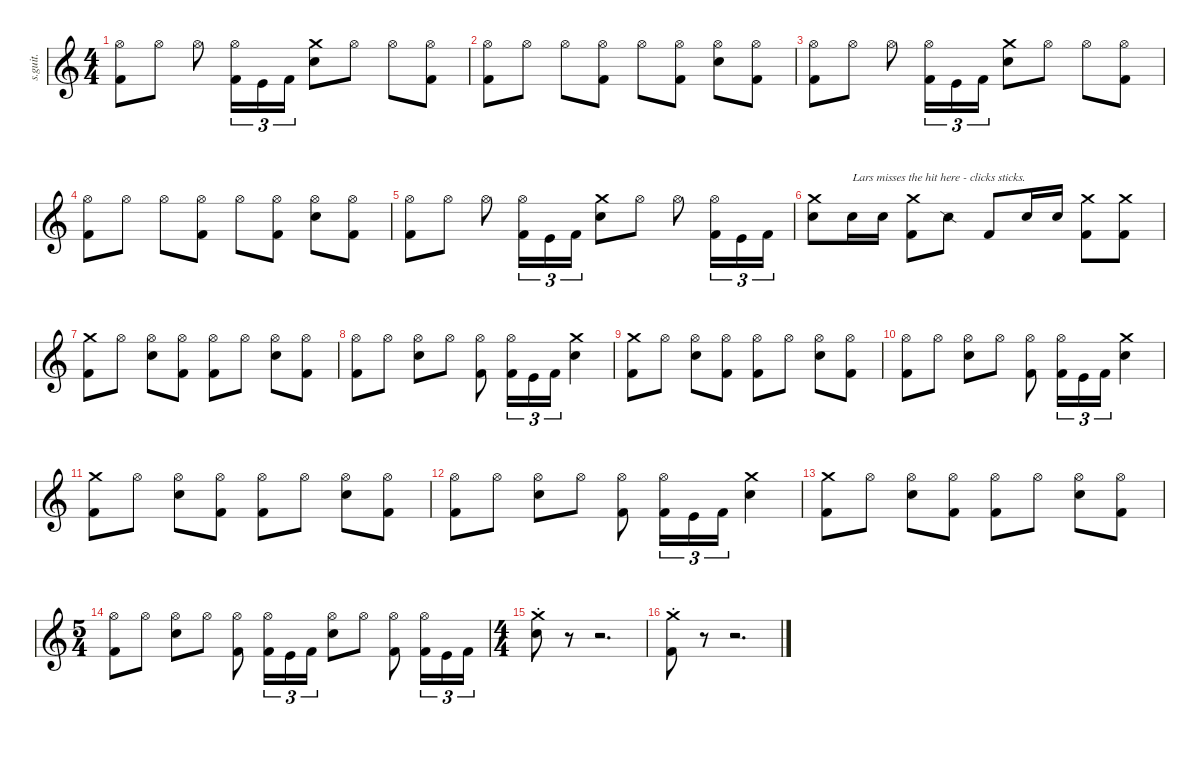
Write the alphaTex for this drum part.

\defaultSystemsLayout 4
\hideDynamics
\bracketExtendMode nobrackets
\track ("Lars Ulrich - Drums" "s.guit.") {instrument percussion}
\staff {score}
\articulation defaults
\ts (4 4)
\tempo (140 hide)
\clef g2
\ks c
("Hi-Hat (open)" "Kick (hit) 2").8{lyrics (0 "") lyrics (1 "") lyrics (2 "") lyrics (3 "") lyrics (4 "") dy f} "Hi-Hat (open)".8{lyrics (0 "") lyrics (1 "") lyrics (2 "") lyrics (3 "") lyrics (4 "")} "Hi-Hat (open)".8{lyrics (0 "") lyrics (1 "") lyrics (2 "") lyrics (3 "") lyrics (4 "")} ("Hi-Hat (open)" "Kick (hit) 2").16{tu (3 2) lyrics (0 "") lyrics (1 "") lyrics (2 "") lyrics (3 "") lyrics (4 "")} "Kick (hit)".16{tu (3 2) lyrics (0 "") lyrics (1 "") lyrics (2 "") lyrics (3 "") lyrics (4 "")} "Kick (hit) 2".16{tu (3 2) lyrics (0 "") lyrics (1 "") lyrics (2 "") lyrics (3 "") lyrics (4 "")} ("Crash medium (hit)" "Snare (hit) 2").8{lyrics (0 "") lyrics (1 "") lyrics (2 "") lyrics (3 "") lyrics (4 "")} "Hi-Hat (open)".8{lyrics (0 "") lyrics (1 "") lyrics (2 "") lyrics (3 "") lyrics (4 "")} "Hi-Hat (open)".8{lyrics (0 "") lyrics (1 "") lyrics (2 "") lyrics (3 "") lyrics (4 "")} ("Hi-Hat (open)" "Kick (hit) 2").8{lyrics (0 "") lyrics (1 "") lyrics (2 "") lyrics (3 "") lyrics (4 "")} |
("Hi-Hat (open)" "Kick (hit) 2").8{lyrics (0 "") lyrics (1 "") lyrics (2 "") lyrics (3 "") lyrics (4 "")} "Hi-Hat (open)".8{lyrics (0 "") lyrics (1 "") lyrics (2 "") lyrics (3 "") lyrics (4 "")} "Hi-Hat (open)".8{lyrics (0 "") lyrics (1 "") lyrics (2 "") lyrics (3 "") lyrics (4 "")} ("Hi-Hat (open)" "Kick (hit) 2").8{lyrics (0 "") lyrics (1 "") lyrics (2 "") lyrics (3 "") lyrics (4 "")} "Hi-Hat (open)".8{lyrics (0 "") lyrics (1 "") lyrics (2 "") lyrics (3 "") lyrics (4 "")} ("Hi-Hat (open)" "Kick (hit) 2").8{lyrics (0 "") lyrics (1 "") lyrics (2 "") lyrics (3 "") lyrics (4 "")} ("Hi-Hat (open)" "Snare (hit) 2").8{lyrics (0 "") lyrics (1 "") lyrics (2 "") lyrics (3 "") lyrics (4 "")} ("Hi-Hat (open)" "Kick (hit) 2").8{lyrics (0 "") lyrics (1 "") lyrics (2 "") lyrics (3 "") lyrics (4 "")} |
("Hi-Hat (open)" "Kick (hit) 2").8{lyrics (0 "") lyrics (1 "") lyrics (2 "") lyrics (3 "") lyrics (4 "")} "Hi-Hat (open)".8{lyrics (0 "") lyrics (1 "") lyrics (2 "") lyrics (3 "") lyrics (4 "")} "Hi-Hat (open)".8{lyrics (0 "") lyrics (1 "") lyrics (2 "") lyrics (3 "") lyrics (4 "")} ("Hi-Hat (open)" "Kick (hit) 2").16{tu (3 2) lyrics (0 "") lyrics (1 "") lyrics (2 "") lyrics (3 "") lyrics (4 "")} "Kick (hit)".16{tu (3 2) lyrics (0 "") lyrics (1 "") lyrics (2 "") lyrics (3 "") lyrics (4 "")} "Kick (hit) 2".16{tu (3 2) lyrics (0 "") lyrics (1 "") lyrics (2 "") lyrics (3 "") lyrics (4 "")} ("Crash medium (hit)" "Snare (hit) 2").8{lyrics (0 "") lyrics (1 "") lyrics (2 "") lyrics (3 "") lyrics (4 "")} "Hi-Hat (open)".8{lyrics (0 "") lyrics (1 "") lyrics (2 "") lyrics (3 "") lyrics (4 "")} "Hi-Hat (open)".8{lyrics (0 "") lyrics (1 "") lyrics (2 "") lyrics (3 "") lyrics (4 "")} ("Hi-Hat (open)" "Kick (hit) 2").8{lyrics (0 "") lyrics (1 "") lyrics (2 "") lyrics (3 "") lyrics (4 "")} |
("Hi-Hat (open)" "Kick (hit) 2").8{lyrics (0 "") lyrics (1 "") lyrics (2 "") lyrics (3 "") lyrics (4 "")} "Hi-Hat (open)".8{lyrics (0 "") lyrics (1 "") lyrics (2 "") lyrics (3 "") lyrics (4 "")} "Hi-Hat (open)".8{lyrics (0 "") lyrics (1 "") lyrics (2 "") lyrics (3 "") lyrics (4 "")} ("Hi-Hat (open)" "Kick (hit) 2").8{lyrics (0 "") lyrics (1 "") lyrics (2 "") lyrics (3 "") lyrics (4 "")} "Hi-Hat (open)".8{lyrics (0 "") lyrics (1 "") lyrics (2 "") lyrics (3 "") lyrics (4 "")} ("Hi-Hat (open)" "Kick (hit) 2").8{lyrics (0 "") lyrics (1 "") lyrics (2 "") lyrics (3 "") lyrics (4 "")} ("Hi-Hat (open)" "Snare (hit) 2").8{lyrics (0 "") lyrics (1 "") lyrics (2 "") lyrics (3 "") lyrics (4 "")} ("Hi-Hat (open)" "Kick (hit) 2").8{lyrics (0 "") lyrics (1 "") lyrics (2 "") lyrics (3 "") lyrics (4 "")} |
("Hi-Hat (open)" "Kick (hit) 2").8{lyrics (0 "") lyrics (1 "") lyrics (2 "") lyrics (3 "") lyrics (4 "")} "Hi-Hat (open)".8{lyrics (0 "") lyrics (1 "") lyrics (2 "") lyrics (3 "") lyrics (4 "")} "Hi-Hat (open)".8{lyrics (0 "") lyrics (1 "") lyrics (2 "") lyrics (3 "") lyrics (4 "")} ("Hi-Hat (open)" "Kick (hit) 2").16{tu (3 2) lyrics (0 "") lyrics (1 "") lyrics (2 "") lyrics (3 "") lyrics (4 "")} "Kick (hit)".16{tu (3 2) lyrics (0 "") lyrics (1 "") lyrics (2 "") lyrics (3 "") lyrics (4 "")} "Kick (hit) 2".16{tu (3 2) lyrics (0 "") lyrics (1 "") lyrics (2 "") lyrics (3 "") lyrics (4 "")} ("Crash medium (hit)" "Snare (hit) 2").8{lyrics (0 "") lyrics (1 "") lyrics (2 "") lyrics (3 "") lyrics (4 "")} "Hi-Hat (open)".8{lyrics (0 "") lyrics (1 "") lyrics (2 "") lyrics (3 "") lyrics (4 "")} "Hi-Hat (open)".8{lyrics (0 "") lyrics (1 "") lyrics (2 "") lyrics (3 "") lyrics (4 "")} ("Hi-Hat (open)" "Kick (hit) 2").16{tu (3 2) lyrics (0 "") lyrics (1 "") lyrics (2 "") lyrics (3 "") lyrics (4 "")} "Kick (hit)".16{tu (3 2) lyrics (0 "") lyrics (1 "") lyrics (2 "") lyrics (3 "") lyrics (4 "")} "Kick (hit) 2".16{tu (3 2) lyrics (0 "") lyrics (1 "") lyrics (2 "") lyrics (3 "") lyrics (4 "")} |
("Crash medium (hit)" "Snare (hit) 2").8{lyrics (0 "") lyrics (1 "") lyrics (2 "") lyrics (3 "") lyrics (4 "")} "Snare (hit) 2".16{txt "Lars misses the hit here - clicks sticks." lyrics (0 "") lyrics (1 "") lyrics (2 "") lyrics (3 "") lyrics (4 "") dy p} "Snare (hit) 2".16{lyrics (0 "") lyrics (1 "") lyrics (2 "") lyrics (3 "") lyrics (4 "")} ("Crash medium (hit)" "Kick (hit) 2").8{lyrics (0 "") lyrics (1 "") lyrics (2 "") lyrics (3 "") lyrics (4 "") dy f} "Snare (side stick) 2".8{lyrics (0 "") lyrics (1 "") lyrics (2 "") lyrics (3 "") lyrics (4 "") dy mf} "Kick (hit) 2".8{lyrics (0 "") lyrics (1 "") lyrics (2 "") lyrics (3 "") lyrics (4 "") dy fff} "Snare (hit) 2".16{lyrics (0 "") lyrics (1 "") lyrics (2 "") lyrics (3 "") lyrics (4 "") dy p} "Snare (hit) 2".16{lyrics (0 "") lyrics (1 "") lyrics (2 "") lyrics (3 "") lyrics (4 "")} ("Crash medium (hit)" "Kick (hit) 2").8{lyrics (0 "") lyrics (1 "") lyrics (2 "") lyrics (3 "") lyrics (4 "") dy f} ("Crash medium (hit)" "Kick (hit) 2").8{lyrics (0 "") lyrics (1 "") lyrics (2 "") lyrics (3 "") lyrics (4 "")} |
("Crash medium (hit)" "Kick (hit) 2").8{lyrics (0 "") lyrics (1 "") lyrics (2 "") lyrics (3 "") lyrics (4 "")} "Hi-Hat (open)".8{lyrics (0 "") lyrics (1 "") lyrics (2 "") lyrics (3 "") lyrics (4 "")} ("Hi-Hat (open)" "Snare (hit) 2").8{lyrics (0 "") lyrics (1 "") lyrics (2 "") lyrics (3 "") lyrics (4 "")} ("Hi-Hat (open)" "Kick (hit) 2").8{lyrics (0 "") lyrics (1 "") lyrics (2 "") lyrics (3 "") lyrics (4 "")} ("Hi-Hat (open)" "Kick (hit) 2").8{lyrics (0 "") lyrics (1 "") lyrics (2 "") lyrics (3 "") lyrics (4 "")} "Hi-Hat (open)".8{lyrics (0 "") lyrics (1 "") lyrics (2 "") lyrics (3 "") lyrics (4 "")} ("Hi-Hat (open)" "Snare (hit) 2").8{lyrics (0 "") lyrics (1 "") lyrics (2 "") lyrics (3 "") lyrics (4 "")} ("Hi-Hat (open)" "Kick (hit) 2").8{lyrics (0 "") lyrics (1 "") lyrics (2 "") lyrics (3 "") lyrics (4 "")} |
("Hi-Hat (open)" "Kick (hit) 2").8{lyrics (0 "") lyrics (1 "") lyrics (2 "") lyrics (3 "") lyrics (4 "")} "Hi-Hat (open)".8{lyrics (0 "") lyrics (1 "") lyrics (2 "") lyrics (3 "") lyrics (4 "")} ("Hi-Hat (open)" "Snare (hit) 2").8{lyrics (0 "") lyrics (1 "") lyrics (2 "") lyrics (3 "") lyrics (4 "")} "Hi-Hat (open)".8{lyrics (0 "") lyrics (1 "") lyrics (2 "") lyrics (3 "") lyrics (4 "")} ("Hi-Hat (open)" "Kick (hit) 2").8{lyrics (0 "") lyrics (1 "") lyrics (2 "") lyrics (3 "") lyrics (4 "")} ("Hi-Hat (open)" "Kick (hit) 2").16{tu (3 2) lyrics (0 "") lyrics (1 "") lyrics (2 "") lyrics (3 "") lyrics (4 "")} "Kick (hit)".16{tu (3 2) lyrics (0 "") lyrics (1 "") lyrics (2 "") lyrics (3 "") lyrics (4 "")} "Kick (hit) 2".16{tu (3 2) lyrics (0 "") lyrics (1 "") lyrics (2 "") lyrics (3 "") lyrics (4 "")} ("Crash medium (hit)" "Snare (hit) 2").4{lyrics (0 "") lyrics (1 "") lyrics (2 "") lyrics (3 "") lyrics (4 "")} |
("Crash medium (hit)" "Kick (hit) 2").8{lyrics (0 "") lyrics (1 "") lyrics (2 "") lyrics (3 "") lyrics (4 "")} "Hi-Hat (open)".8{lyrics (0 "") lyrics (1 "") lyrics (2 "") lyrics (3 "") lyrics (4 "")} ("Hi-Hat (open)" "Snare (hit) 2").8{lyrics (0 "") lyrics (1 "") lyrics (2 "") lyrics (3 "") lyrics (4 "")} ("Hi-Hat (open)" "Kick (hit) 2").8{lyrics (0 "") lyrics (1 "") lyrics (2 "") lyrics (3 "") lyrics (4 "")} ("Hi-Hat (open)" "Kick (hit) 2").8{lyrics (0 "") lyrics (1 "") lyrics (2 "") lyrics (3 "") lyrics (4 "")} "Hi-Hat (open)".8{lyrics (0 "") lyrics (1 "") lyrics (2 "") lyrics (3 "") lyrics (4 "")} ("Hi-Hat (open)" "Snare (hit) 2").8{lyrics (0 "") lyrics (1 "") lyrics (2 "") lyrics (3 "") lyrics (4 "")} ("Hi-Hat (open)" "Kick (hit) 2").8{lyrics (0 "") lyrics (1 "") lyrics (2 "") lyrics (3 "") lyrics (4 "")} |
("Hi-Hat (open)" "Kick (hit) 2").8{lyrics (0 "") lyrics (1 "") lyrics (2 "") lyrics (3 "") lyrics (4 "")} "Hi-Hat (open)".8{lyrics (0 "") lyrics (1 "") lyrics (2 "") lyrics (3 "") lyrics (4 "")} ("Hi-Hat (open)" "Snare (hit) 2").8{lyrics (0 "") lyrics (1 "") lyrics (2 "") lyrics (3 "") lyrics (4 "")} "Hi-Hat (open)".8{lyrics (0 "") lyrics (1 "") lyrics (2 "") lyrics (3 "") lyrics (4 "")} ("Hi-Hat (open)" "Kick (hit) 2").8{lyrics (0 "") lyrics (1 "") lyrics (2 "") lyrics (3 "") lyrics (4 "")} ("Hi-Hat (open)" "Kick (hit) 2").16{tu (3 2) lyrics (0 "") lyrics (1 "") lyrics (2 "") lyrics (3 "") lyrics (4 "")} "Kick (hit)".16{tu (3 2) lyrics (0 "") lyrics (1 "") lyrics (2 "") lyrics (3 "") lyrics (4 "")} "Kick (hit) 2".16{tu (3 2) lyrics (0 "") lyrics (1 "") lyrics (2 "") lyrics (3 "") lyrics (4 "")} ("Crash medium (hit)" "Snare (hit) 2").4{lyrics (0 "") lyrics (1 "") lyrics (2 "") lyrics (3 "") lyrics (4 "")} |
("Crash medium (hit)" "Kick (hit) 2").8{lyrics (0 "") lyrics (1 "") lyrics (2 "") lyrics (3 "") lyrics (4 "")} "Hi-Hat (open)".8{lyrics (0 "") lyrics (1 "") lyrics (2 "") lyrics (3 "") lyrics (4 "")} ("Hi-Hat (open)" "Snare (hit) 2").8{lyrics (0 "") lyrics (1 "") lyrics (2 "") lyrics (3 "") lyrics (4 "")} ("Hi-Hat (open)" "Kick (hit) 2").8{lyrics (0 "") lyrics (1 "") lyrics (2 "") lyrics (3 "") lyrics (4 "")} ("Hi-Hat (open)" "Kick (hit) 2").8{lyrics (0 "") lyrics (1 "") lyrics (2 "") lyrics (3 "") lyrics (4 "")} "Hi-Hat (open)".8{lyrics (0 "") lyrics (1 "") lyrics (2 "") lyrics (3 "") lyrics (4 "")} ("Hi-Hat (open)" "Snare (hit) 2").8{lyrics (0 "") lyrics (1 "") lyrics (2 "") lyrics (3 "") lyrics (4 "")} ("Hi-Hat (open)" "Kick (hit) 2").8{lyrics (0 "") lyrics (1 "") lyrics (2 "") lyrics (3 "") lyrics (4 "")} |
("Hi-Hat (open)" "Kick (hit) 2").8{lyrics (0 "") lyrics (1 "") lyrics (2 "") lyrics (3 "") lyrics (4 "")} "Hi-Hat (open)".8{lyrics (0 "") lyrics (1 "") lyrics (2 "") lyrics (3 "") lyrics (4 "")} ("Hi-Hat (open)" "Snare (hit) 2").8{lyrics (0 "") lyrics (1 "") lyrics (2 "") lyrics (3 "") lyrics (4 "")} "Hi-Hat (open)".8{lyrics (0 "") lyrics (1 "") lyrics (2 "") lyrics (3 "") lyrics (4 "")} ("Hi-Hat (open)" "Kick (hit) 2").8{lyrics (0 "") lyrics (1 "") lyrics (2 "") lyrics (3 "") lyrics (4 "")} ("Hi-Hat (open)" "Kick (hit) 2").16{tu (3 2) lyrics (0 "") lyrics (1 "") lyrics (2 "") lyrics (3 "") lyrics (4 "")} "Kick (hit)".16{tu (3 2) lyrics (0 "") lyrics (1 "") lyrics (2 "") lyrics (3 "") lyrics (4 "")} "Kick (hit) 2".16{tu (3 2) lyrics (0 "") lyrics (1 "") lyrics (2 "") lyrics (3 "") lyrics (4 "")} ("Crash medium (hit)" "Snare (hit) 2").4{lyrics (0 "") lyrics (1 "") lyrics (2 "") lyrics (3 "") lyrics (4 "")} |
("Crash medium (hit)" "Kick (hit) 2").8{lyrics (0 "") lyrics (1 "") lyrics (2 "") lyrics (3 "") lyrics (4 "")} "Hi-Hat (open)".8{lyrics (0 "") lyrics (1 "") lyrics (2 "") lyrics (3 "") lyrics (4 "")} ("Hi-Hat (open)" "Snare (hit) 2").8{lyrics (0 "") lyrics (1 "") lyrics (2 "") lyrics (3 "") lyrics (4 "")} ("Hi-Hat (open)" "Kick (hit) 2").8{lyrics (0 "") lyrics (1 "") lyrics (2 "") lyrics (3 "") lyrics (4 "")} ("Hi-Hat (open)" "Kick (hit) 2").8{lyrics (0 "") lyrics (1 "") lyrics (2 "") lyrics (3 "") lyrics (4 "")} "Hi-Hat (open)".8{lyrics (0 "") lyrics (1 "") lyrics (2 "") lyrics (3 "") lyrics (4 "")} ("Hi-Hat (open)" "Snare (hit) 2").8{lyrics (0 "") lyrics (1 "") lyrics (2 "") lyrics (3 "") lyrics (4 "")} ("Hi-Hat (open)" "Kick (hit) 2").8{lyrics (0 "") lyrics (1 "") lyrics (2 "") lyrics (3 "") lyrics (4 "")} |
\ts (5 4)
\beaming (8 2 2 2 2)
("Hi-Hat (open)" "Kick (hit) 2").8{lyrics (0 "") lyrics (1 "") lyrics (2 "") lyrics (3 "") lyrics (4 "")} "Hi-Hat (open)".8{lyrics (0 "") lyrics (1 "") lyrics (2 "") lyrics (3 "") lyrics (4 "")} ("Hi-Hat (open)" "Snare (hit) 2").8{lyrics (0 "") lyrics (1 "") lyrics (2 "") lyrics (3 "") lyrics (4 "")} "Hi-Hat (open)".8{lyrics (0 "") lyrics (1 "") lyrics (2 "") lyrics (3 "") lyrics (4 "")} ("Hi-Hat (open)" "Kick (hit) 2").8{lyrics (0 "") lyrics (1 "") lyrics (2 "") lyrics (3 "") lyrics (4 "")} ("Hi-Hat (open)" "Kick (hit) 2").16{tu (3 2) lyrics (0 "") lyrics (1 "") lyrics (2 "") lyrics (3 "") lyrics (4 "")} "Kick (hit)".16{tu (3 2) lyrics (0 "") lyrics (1 "") lyrics (2 "") lyrics (3 "") lyrics (4 "")} "Kick (hit) 2".16{tu (3 2) lyrics (0 "") lyrics (1 "") lyrics (2 "") lyrics (3 "") lyrics (4 "")} ("Hi-Hat (open)" "Snare (hit) 2").8{lyrics (0 "") lyrics (1 "") lyrics (2 "") lyrics (3 "") lyrics (4 "")} "Hi-Hat (open)".8{lyrics (0 "") lyrics (1 "") lyrics (2 "") lyrics (3 "") lyrics (4 "")} ("Hi-Hat (open)" "Kick (hit) 2").8{lyrics (0 "") lyrics (1 "") lyrics (2 "") lyrics (3 "") lyrics (4 "")} ("Hi-Hat (open)" "Kick (hit) 2").16{tu (3 2) lyrics (0 "") lyrics (1 "") lyrics (2 "") lyrics (3 "") lyrics (4 "")} "Kick (hit)".16{tu (3 2) lyrics (0 "") lyrics (1 "") lyrics (2 "") lyrics (3 "") lyrics (4 "")} "Kick (hit) 2".16{tu (3 2) lyrics (0 "") lyrics (1 "") lyrics (2 "") lyrics (3 "") lyrics (4 "")} |
\ts (4 4)
\beaming (8 2 2 2 2)
("Crash medium (choke)" "Snare (hit) 2").8{lyrics (0 "") lyrics (1 "") lyrics (2 "") lyrics (3 "") lyrics (4 "")} r.8 r.2{d} |
("Crash medium (choke)" "Kick (hit) 2").8{lyrics (0 "") lyrics (1 "") lyrics (2 "") lyrics (3 "") lyrics (4 "")} r.8 r.2{d}
